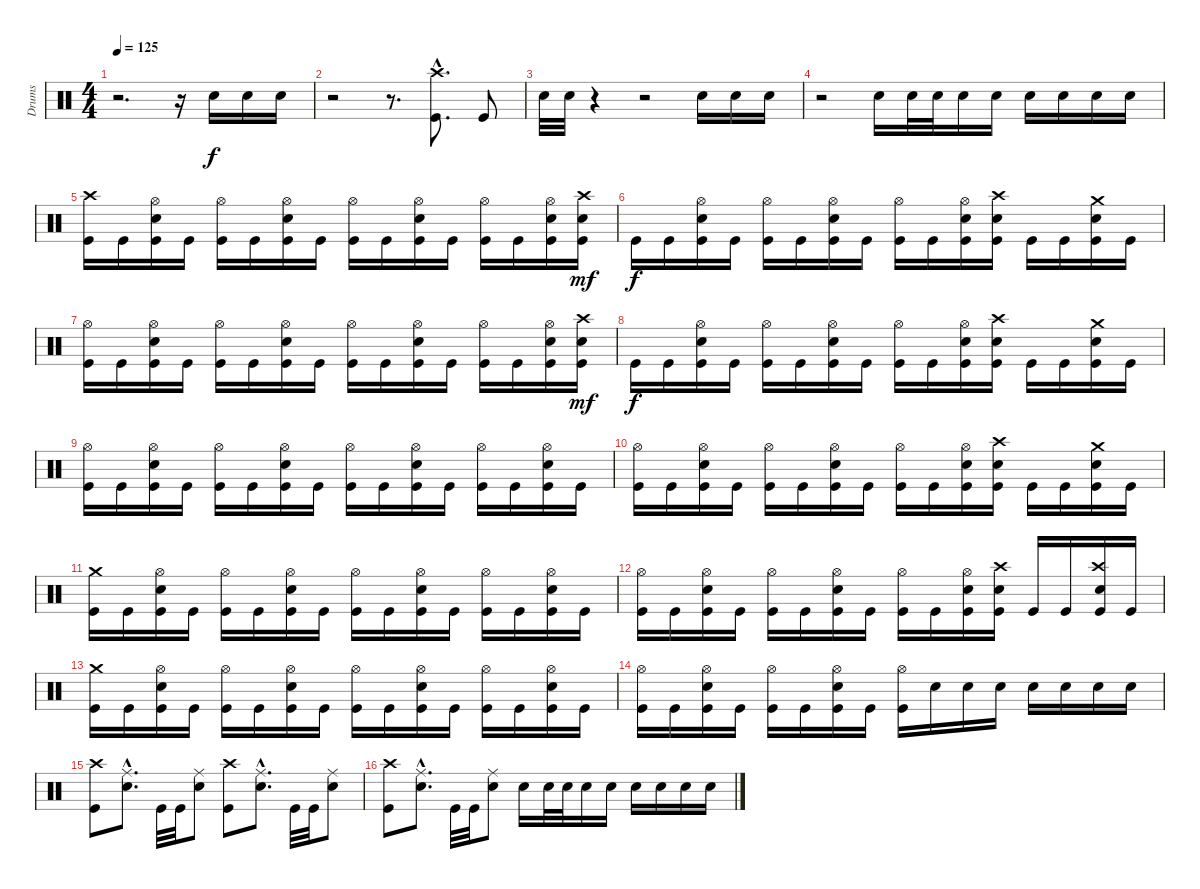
\track ("Drums" "Drums") {instrument percussion}
\staff {score}
\articulation defaults
\ts (4 4)
\tempo 125
\clef neutral
\ks c
r.2{d dy f} r.16 "Snare (hit) 2".16 "Snare (hit) 2".16 "Snare (hit) 2".16 |
r.2 r.8{d} ("Crash high (hit)"{hac} "Kick (hit)"{hac}).8{d} "Kick (hit)".8 |
"Snare (hit) 2".32 "Snare (hit) 2".32 r.4 r.2 "Snare (hit) 2".16 "Snare (hit) 2".16 "Snare (hit) 2".16 |
r.2 "Snare (hit) 2".16 "Snare (hit) 2".32 "Snare (hit) 2".32 "Snare (hit) 2".16 "Snare (hit) 2".16 "Snare (hit) 2".16 "Snare (hit) 2".16 "Snare (hit) 2".16 "Snare (hit) 2".16 |
("Crash high (hit)" "Kick (hit)").16 "Kick (hit)".16 ("Hi-Hat (open)" "Snare (hit) 2" "Kick (hit)").16 "Kick (hit)".16 ("Hi-Hat (open)" "Kick (hit)").16 "Kick (hit)".16 ("Hi-Hat (open)" "Snare (hit) 2" "Kick (hit)").16 "Kick (hit)".16 ("Hi-Hat (open)" "Kick (hit)").16 "Kick (hit)".16 ("Hi-Hat (open)" "Snare (hit) 2" "Kick (hit)").16 "Kick (hit)".16 ("Hi-Hat (open)" "Kick (hit)").16 "Kick (hit)".16 ("Hi-Hat (open)" "Snare (hit) 2" "Kick (hit)").16 ("Crash high (hit)" "Snare (hit) 2" "Kick (hit)").16{dy mf} |
"Kick (hit)".16{dy f} "Kick (hit)".16 ("Hi-Hat (open)" "Snare (hit) 2" "Kick (hit)").16 "Kick (hit)".16 ("Hi-Hat (open)" "Kick (hit)").16 "Kick (hit)".16 ("Hi-Hat (open)" "Snare (hit) 2" "Kick (hit)").16 "Kick (hit)".16 ("Hi-Hat (open)" "Kick (hit)").16 "Kick (hit)".16 ("Hi-Hat (open)" "Snare (hit) 2" "Kick (hit)").16 ("Crash high (hit)" "Snare (hit) 2" "Kick (hit)").16 "Kick (hit)".16 "Kick (hit)".16 ("Crash medium (hit)" "Snare (hit) 2" "Kick (hit)").16 "Kick (hit)".16 |
("Hi-Hat (open)" "Kick (hit)").16 "Kick (hit)".16 ("Hi-Hat (open)" "Snare (hit) 2" "Kick (hit)").16 "Kick (hit)".16 ("Hi-Hat (open)" "Kick (hit)").16 "Kick (hit)".16 ("Hi-Hat (open)" "Snare (hit) 2" "Kick (hit)").16 "Kick (hit)".16 ("Hi-Hat (open)" "Kick (hit)").16 "Kick (hit)".16 ("Hi-Hat (open)" "Snare (hit) 2" "Kick (hit)").16 "Kick (hit)".16 ("Hi-Hat (open)" "Kick (hit)").16 "Kick (hit)".16 ("Hi-Hat (open)" "Snare (hit) 2" "Kick (hit)").16 ("Crash high (hit)" "Snare (hit) 2" "Kick (hit)").16{dy mf} |
"Kick (hit)".16{dy f} "Kick (hit)".16 ("Hi-Hat (open)" "Snare (hit) 2" "Kick (hit)").16 "Kick (hit)".16 ("Hi-Hat (open)" "Kick (hit)").16 "Kick (hit)".16 ("Hi-Hat (open)" "Snare (hit) 2" "Kick (hit)").16 "Kick (hit)".16 ("Hi-Hat (open)" "Kick (hit)").16 "Kick (hit)".16 ("Hi-Hat (open)" "Snare (hit) 2" "Kick (hit)").16 ("Crash high (hit)" "Snare (hit) 2" "Kick (hit)").16 "Kick (hit)".16 "Kick (hit)".16 ("Crash medium (hit)" "Snare (hit) 2" "Kick (hit)").16 "Kick (hit)".16 |
("Hi-Hat (open)" "Kick (hit)").16 "Kick (hit)".16 ("Hi-Hat (open)" "Snare (hit) 2" "Kick (hit)").16 "Kick (hit)".16 ("Hi-Hat (open)" "Kick (hit)").16 "Kick (hit)".16 ("Hi-Hat (open)" "Snare (hit) 2" "Kick (hit)").16 "Kick (hit)".16 ("Hi-Hat (open)" "Kick (hit)").16 "Kick (hit)".16 ("Hi-Hat (open)" "Snare (hit) 2" "Kick (hit)").16 "Kick (hit)".16 ("Hi-Hat (open)" "Kick (hit)").16 "Kick (hit)".16 ("Hi-Hat (open)" "Snare (hit) 2" "Kick (hit)").16 "Kick (hit)".16 |
("Hi-Hat (open)" "Kick (hit)").16 "Kick (hit)".16 ("Hi-Hat (open)" "Snare (hit) 2" "Kick (hit)").16 "Kick (hit)".16 ("Hi-Hat (open)" "Kick (hit)").16 "Kick (hit)".16 ("Hi-Hat (open)" "Snare (hit) 2" "Kick (hit)").16 "Kick (hit)".16 ("Hi-Hat (open)" "Kick (hit)").16 "Kick (hit)".16 ("Hi-Hat (open)" "Snare (hit) 2" "Kick (hit)").16 ("Crash high (hit)" "Snare (hit) 2" "Kick (hit)").16 "Kick (hit)".16 "Kick (hit)".16 ("Crash medium (hit)" "Snare (hit) 2" "Kick (hit)").16 "Kick (hit)".16 |
("Crash medium (hit)" "Kick (hit)").16 "Kick (hit)".16 ("Hi-Hat (open)" "Snare (hit) 2" "Kick (hit)").16 "Kick (hit)".16 ("Hi-Hat (open)" "Kick (hit)").16 "Kick (hit)".16 ("Hi-Hat (open)" "Snare (hit) 2" "Kick (hit)").16 "Kick (hit)".16 ("Hi-Hat (open)" "Kick (hit)").16 "Kick (hit)".16 ("Hi-Hat (open)" "Snare (hit) 2" "Kick (hit)").16 "Kick (hit)".16 ("Hi-Hat (open)" "Kick (hit)").16 "Kick (hit)".16 ("Hi-Hat (open)" "Snare (hit) 2" "Kick (hit)").16 "Kick (hit)".16 |
("Hi-Hat (open)" "Kick (hit)").16 "Kick (hit)".16 ("Hi-Hat (open)" "Snare (hit) 2" "Kick (hit)").16 "Kick (hit)".16 ("Hi-Hat (open)" "Kick (hit)").16 "Kick (hit)".16 ("Hi-Hat (open)" "Snare (hit) 2" "Kick (hit)").16 "Kick (hit)".16 ("Hi-Hat (open)" "Kick (hit)").16 "Kick (hit)".16 ("Hi-Hat (open)" "Snare (hit) 2" "Kick (hit)").16 ("Crash high (hit)" "Snare (hit) 2" "Kick (hit)").16 "Kick (hit)".16 "Kick (hit)".16 ("Crash high (hit)" "Snare (hit) 2" "Kick (hit)").16 "Kick (hit)".16 |
("Crash medium (hit)" "Kick (hit)").16 "Kick (hit)".16 ("Hi-Hat (open)" "Snare (hit) 2" "Kick (hit)").16 "Kick (hit)".16 ("Hi-Hat (open)" "Kick (hit)").16 "Kick (hit)".16 ("Hi-Hat (open)" "Snare (hit) 2" "Kick (hit)").16 "Kick (hit)".16 ("Hi-Hat (open)" "Kick (hit)").16 "Kick (hit)".16 ("Hi-Hat (open)" "Snare (hit) 2" "Kick (hit)").16 "Kick (hit)".16 ("Hi-Hat (open)" "Kick (hit)").16 "Kick (hit)".16 ("Hi-Hat (open)" "Snare (hit) 2" "Kick (hit)").16 "Kick (hit)".16 |
("Hi-Hat (open)" "Kick (hit)").16 "Kick (hit)".16 ("Hi-Hat (open)" "Snare (hit) 2" "Kick (hit)").16 "Kick (hit)".16 ("Hi-Hat (open)" "Kick (hit)").16 "Kick (hit)".16 ("Hi-Hat (open)" "Snare (hit) 2" "Kick (hit)").16 "Kick (hit)".16 ("Hi-Hat (open)" "Kick (hit)").16 "Snare (hit) 2".16 "Snare (hit) 2".16 "Snare (hit) 2".16 "Snare (hit) 2".16 "Snare (hit) 2".16 "Snare (hit) 2".16 "Snare (hit) 2".16 |
("Crash high (hit)" "Kick (hit)").8 ("Ride (middle)"{hac} "Snare (hit) 2"{hac}).8{d} "Kick (hit)".32 "Kick (hit)".32 ("Ride (middle)" "Snare (hit) 2").8 ("Crash high (hit)" "Kick (hit)").8 ("Ride (middle)"{hac} "Snare (hit) 2"{hac}).8{d} "Kick (hit)".32 "Kick (hit)".32 ("Ride (middle)" "Snare (hit) 2").8 |
("Crash high (hit)" "Kick (hit)").8 ("Ride (middle)"{hac} "Snare (hit) 2"{hac}).8{d} "Kick (hit)".32 "Kick (hit)".32 ("Ride (middle)" "Snare (hit) 2").8 "Snare (hit) 2".16 "Snare (hit) 2".32 "Snare (hit) 2".32 "Snare (hit) 2".16 "Snare (hit) 2".16 "Snare (hit) 2".16 "Snare (hit) 2".16 "Snare (hit) 2".16 "Snare (hit) 2".16
